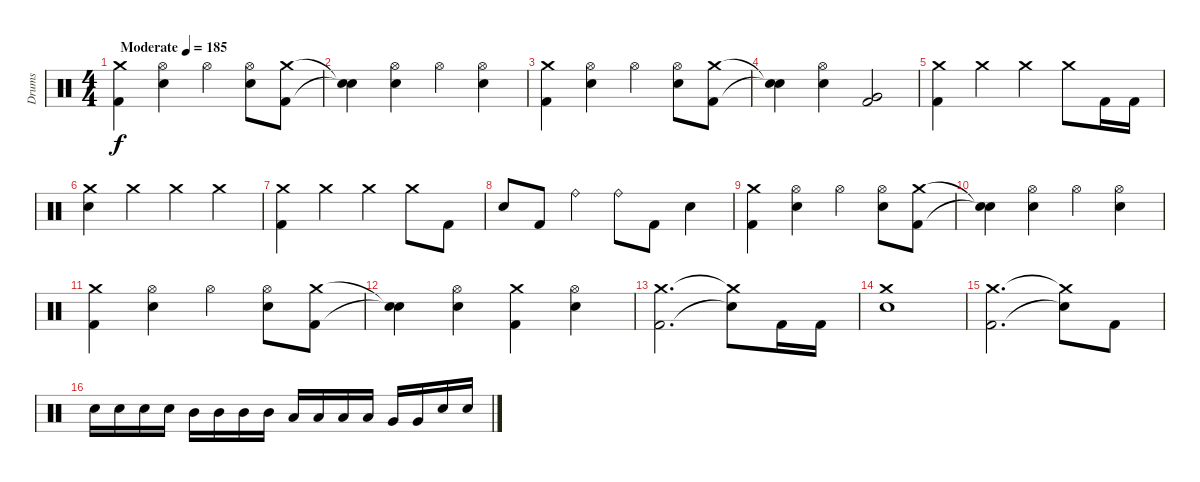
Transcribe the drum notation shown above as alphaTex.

\track ("Drums" "Drums") {instrument percussion}
\staff
\articulation defaults
\ts (4 4)
\tempo (185 "Moderate")
\clef neutral
\ks c
("Crash medium (hit)" "Kick (hit) 2").4{dy f} ("Hi-Hat (open)" "Electric Snare (hit)").4 "Hi-Hat (open)".4 ("Hi-Hat (open)" "Electric Snare (hit)").8 ("Crash medium (hit)" "Kick (hit) 2").8 |
("Snare (hit)"{t} "Snare (hit)"{t}).4 ("Hi-Hat (open)" "Electric Snare (hit)").4 "Hi-Hat (open)".4 ("Hi-Hat (open)" "Electric Snare (hit)").4 |
("Crash medium (hit)" "Kick (hit) 2").4 ("Hi-Hat (open)" "Electric Snare (hit)").4 "Hi-Hat (open)".4 ("Hi-Hat (open)" "Electric Snare (hit)").8 ("Crash medium (hit)" "Kick (hit) 2").8 |
("Snare (hit)"{t} "Snare (hit)"{t}).4 ("Hi-Hat (open)" "Electric Snare (hit)").4 ("Very Low Tom (hit)" "Kick (hit) 2").2 |
("Crash medium (hit)" "Kick (hit) 2").4 "Crash medium (hit)".4 "Crash medium (hit)".4 "Crash medium (hit)".8 "Kick (hit) 2".16 "Kick (hit) 2".16 |
("Crash medium (hit)" "Electric Snare (hit)").4 "Crash medium (hit)".4 "Crash medium (hit)".4 "Crash medium (hit)".4 |
("Crash medium (hit)" "Kick (hit) 2").4 "Crash medium (hit)".4 "Crash medium (hit)".4 "Crash medium (hit)".8 "Kick (hit) 2".8 |
"Electric Snare (hit)".8 "Kick (hit) 2".8 "Ride (bell)".4 "Ride (bell)".8 "Kick (hit) 2".8 "Electric Snare (hit)".4 |
("Crash medium (hit)" "Kick (hit) 2").4 ("Hi-Hat (open)" "Electric Snare (hit)").4 "Hi-Hat (open)".4 ("Hi-Hat (open)" "Electric Snare (hit)").8 ("Crash medium (hit)" "Kick (hit) 2").8 |
("Snare (hit)"{t} "Snare (hit)"{t}).4 ("Hi-Hat (open)" "Electric Snare (hit)").4 "Hi-Hat (open)".4 ("Hi-Hat (open)" "Electric Snare (hit)").4 |
("Crash medium (hit)" "Kick (hit) 2").4 ("Hi-Hat (open)" "Electric Snare (hit)").4 "Hi-Hat (open)".4 ("Hi-Hat (open)" "Electric Snare (hit)").8 ("Crash medium (hit)" "Kick (hit) 2").8 |
("Snare (hit)"{t} "Snare (hit)"{t}).4 ("Hi-Hat (open)" "Electric Snare (hit)").4 ("Crash medium (hit)" "Kick (hit) 2").4 ("Hi-Hat (open)" "Electric Snare (hit)").4 |
("Crash medium (hit)" "Kick (hit) 2").2{d} ("Crash medium (hit)"{t} "Snare (hit)"{t}).8 "Kick (hit) 2".16 "Kick (hit) 2".16 |
("Crash medium (hit)" "Electric Snare (hit)").1 |
("Crash medium (hit)" "Kick (hit) 2").2{d} ("Crash medium (hit)"{t} "Snare (hit)"{t}).8 "Kick (hit) 2".8 |
"Electric Snare (hit)".16 "Electric Snare (hit)".16 "Electric Snare (hit)".16 "Electric Snare (hit)".16 "Mid Tom (hit)".16 "Mid Tom (hit)".16 "Mid Tom (hit)".16 "Mid Tom (hit)".16 "Low Tom (hit)".16 "Low Tom (hit)".16 "Low Tom (hit)".16 "Low Tom (hit)".16 "Very Low Tom (hit)".16 "Very Low Tom (hit)".16 "Electric Snare (hit)".16 "Electric Snare (hit)".16
